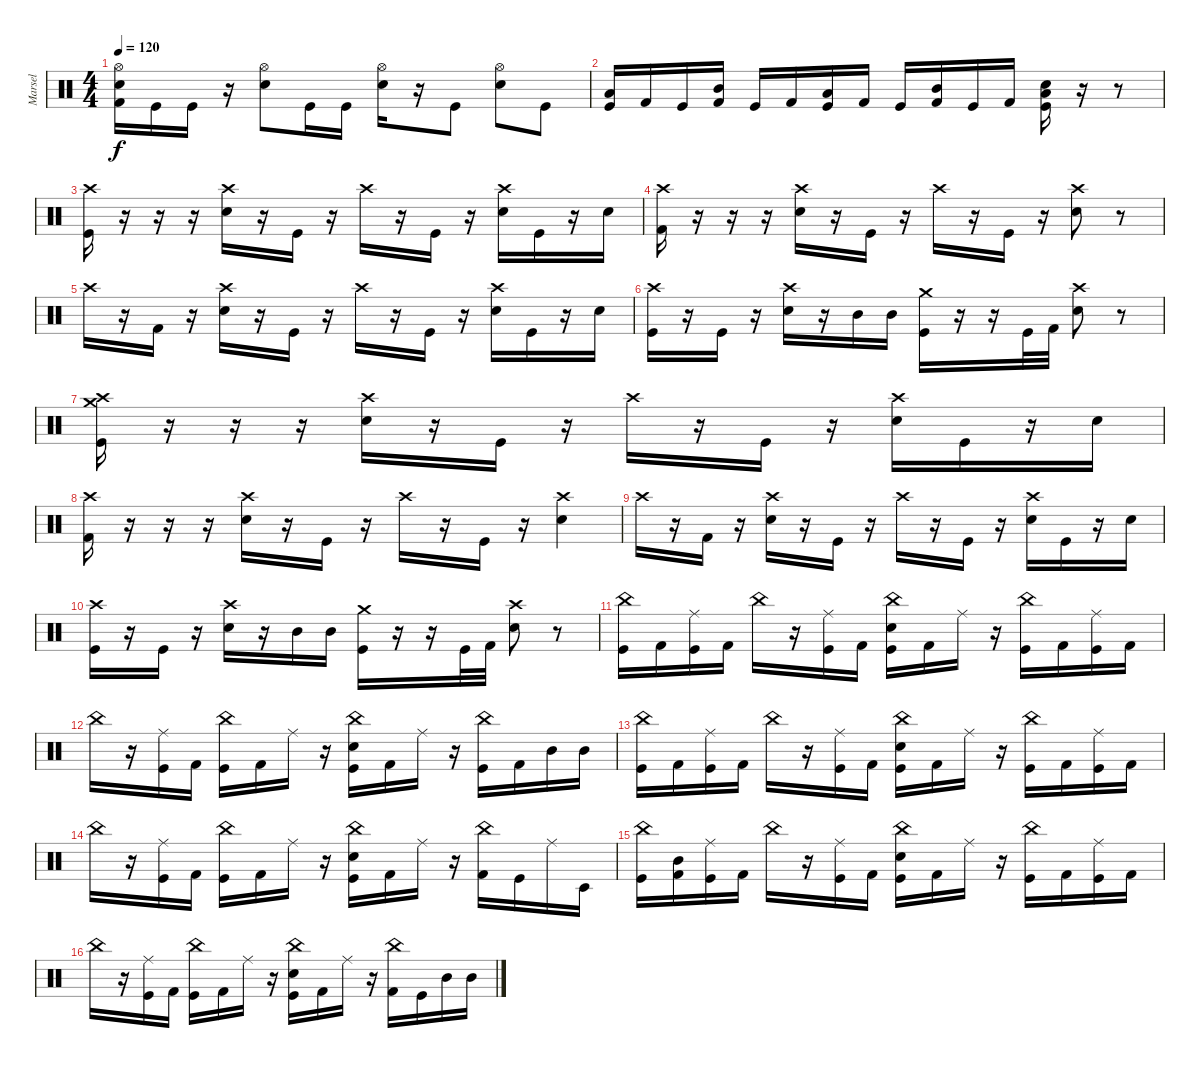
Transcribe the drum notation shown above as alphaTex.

\track ("Marsel" "Marsel") {instrument percussion}
\staff {score}
\articulation defaults
\ts (4 4)
\tempo 120
\clef neutral
\ks c
("Hi-Hat (open)" "Snare (hit) 2" "Kick (hit) 2").16{dy f} "Kick (hit)".16 "Kick (hit)".16 r.16 ("Hi-Hat (open)" "Snare (hit) 2").8 "Kick (hit)".16 "Kick (hit)".16 ("Hi-Hat (open)" "Snare (hit) 2").16 r.16 "Kick (hit)".8 ("Hi-Hat (open)" "Snare (hit) 2").8 "Kick (hit)".8 |
("Low Floor Tom (hit)" "Kick (hit)").16 "Kick (hit) 2".16 "Kick (hit)".16 ("Mid Tom (hit)" "Kick (hit) 2").16 "Kick (hit)".16 "Kick (hit) 2".16 ("Low Tom (hit)" "Kick (hit)").16 "Kick (hit) 2".16 "Kick (hit)".16 ("Mid Tom (hit)" "Kick (hit) 2").16 "Kick (hit)".16 "Kick (hit) 2".16 ("Low Tom (hit)" "Snare (hit) 2" "Kick (hit)").16 r.16 r.8 |
("Crash high (hit)" "Kick (hit)").16 r.16 r.16 r.16 ("Crash high (hit)" "Snare (hit) 2").16 r.16 "Kick (hit)".16 r.16 "Crash high (hit)".16 r.16 "Kick (hit)".16 r.16 ("Crash high (hit)" "Snare (hit) 2").16 "Kick (hit)".16 r.16 "Snare (hit) 2".16 |
("Crash high (hit)" "Kick (hit) 2").16 r.16 r.16 r.16 ("Crash high (hit)" "Snare (hit) 2").16 r.16 "Kick (hit)".16 r.16 "Crash high (hit)".16 r.16 "Kick (hit)".16 r.16 ("Crash high (hit)" "Snare (hit) 2").8 r.8 |
"Crash high (hit)".16 r.16 "Kick (hit) 2".16 r.16 ("Crash high (hit)" "Snare (hit) 2").16 r.16 "Kick (hit)".16 r.16 "Crash high (hit)".16 r.16 "Kick (hit)".16 r.16 ("Crash high (hit)" "Snare (hit) 2").16 "Kick (hit)".16 r.16 "Snare (hit) 2".16 |
("Crash high (hit)" "Kick (hit)").16 r.16 "Kick (hit)".16 r.16 ("Crash high (hit)" "Snare (hit) 2").16 r.16 "Mid Tom (hit)".16 "Mid Tom (hit)".16 ("Crash medium (hit)" "Kick (hit)").16 r.16 r.16 "Kick (hit)".32 "Kick (hit) 2".32 ("Crash high (hit)" "Snare (hit) 2").8 r.8 |
("Crash high (hit)" "Crash medium (hit)" "Kick (hit)").16 r.16 r.16 r.16 ("Crash high (hit)" "Snare (hit) 2").16 r.16 "Kick (hit)".16 r.16 "Crash high (hit)".16 r.16 "Kick (hit)".16 r.16 ("Crash high (hit)" "Snare (hit) 2").16 "Kick (hit)".16 r.16 "Snare (hit) 2".16 |
("Crash high (hit)" "Kick (hit) 2").16 r.16 r.16 r.16 ("Crash high (hit)" "Snare (hit) 2").16 r.16 "Kick (hit)".16 r.16 "Crash high (hit)".16 r.16 "Kick (hit)".16 r.16 ("Crash high (hit)" "Snare (hit) 2").4 |
"Crash high (hit)".16 r.16 "Kick (hit) 2".16 r.16 ("Crash high (hit)" "Snare (hit) 2").16 r.16 "Kick (hit)".16 r.16 "Crash high (hit)".16 r.16 "Kick (hit)".16 r.16 ("Crash high (hit)" "Snare (hit) 2").16 "Kick (hit)".16 r.16 "Snare (hit) 2".16 |
("Crash high (hit)" "Kick (hit)").16 r.16 "Kick (hit)".16 r.16 ("Crash high (hit)" "Snare (hit) 2").16 r.16 "Mid Tom (hit)".16 "Mid Tom (hit)".16 ("Crash medium (hit)" "Kick (hit)").16 r.16 r.16 "Kick (hit)".32 "Kick (hit) 2".32 ("Crash high (hit)" "Snare (hit) 2").8 r.8 |
("China (hit)" "Kick (hit)").16 "Kick (hit) 2".16 ("Ride (middle)" "Kick (hit)").16 "Kick (hit) 2".16 "China (hit)".16 r.16 ("Ride (middle)" "Kick (hit)").16 "Kick (hit) 2".16 ("China (hit)" "Snare (hit) 2" "Kick (hit)").16 "Kick (hit) 2".16 "Ride (middle)".16 r.16 ("China (hit)" "Kick (hit)").16 "Kick (hit) 2".16 ("Ride (middle)" "Kick (hit)").16 "Kick (hit) 2".16 |
"China (hit)".16 r.16 ("Ride (middle)" "Kick (hit)").16 "Kick (hit) 2".16 ("China (hit)" "Kick (hit)").16 "Kick (hit) 2".16 "Ride (middle)".16 r.16 ("China (hit)" "Snare (hit) 2" "Kick (hit)").16 "Kick (hit) 2".16 "Ride (middle)".16 r.16 ("China (hit)" "Kick (hit)").16 "Kick (hit) 2".16 "Mid Tom (hit)".16 "Mid Tom (hit)".16 |
("China (hit)" "Kick (hit)").16 "Kick (hit) 2".16 ("Ride (middle)" "Kick (hit)").16 "Kick (hit) 2".16 "China (hit)".16 r.16 ("Ride (middle)" "Kick (hit)").16 "Kick (hit) 2".16 ("China (hit)" "Snare (hit) 2" "Kick (hit)").16 "Kick (hit) 2".16 "Ride (middle)".16 r.16 ("China (hit)" "Kick (hit)").16 "Kick (hit) 2".16 ("Ride (middle)" "Kick (hit)").16 "Kick (hit) 2".16 |
"China (hit)".16 r.16 ("Ride (middle)" "Kick (hit)").16 "Kick (hit) 2".16 ("China (hit)" "Kick (hit)").16 "Kick (hit) 2".16 "Ride (middle)".16 r.16 ("China (hit)" "Snare (hit) 2" "Kick (hit)").16 "Kick (hit) 2".16 "Ride (middle)".16 r.16 ("China (hit)" "Kick (hit) 2").16 "Kick (hit)".16 "Ride (middle)".16 "Timbale low (hit)".16 |
("China (hit)" "Kick (hit)").16 ("Mid Tom (hit)" "Kick (hit) 2").16 ("Ride (middle)" "Kick (hit)").16 "Kick (hit) 2".16 "China (hit)".16 r.16 ("Ride (middle)" "Kick (hit)").16 "Kick (hit) 2".16 ("China (hit)" "Snare (hit) 2" "Kick (hit)").16 "Kick (hit) 2".16 "Ride (middle)".16 r.16 ("China (hit)" "Kick (hit)").16 "Kick (hit) 2".16 ("Ride (middle)" "Kick (hit)").16 "Kick (hit) 2".16 |
"China (hit)".16 r.16 ("Ride (middle)" "Kick (hit)").16 "Kick (hit) 2".16 ("China (hit)" "Kick (hit)").16 "Kick (hit) 2".16 "Ride (middle)".16 r.16 ("China (hit)" "Snare (hit) 2" "Kick (hit)").16 "Kick (hit) 2".16 "Ride (middle)".16 r.16 ("China (hit)" "Kick (hit) 2").16 "Kick (hit)".16 "Mid Tom (hit)".16 "Mid Tom (hit)".16
